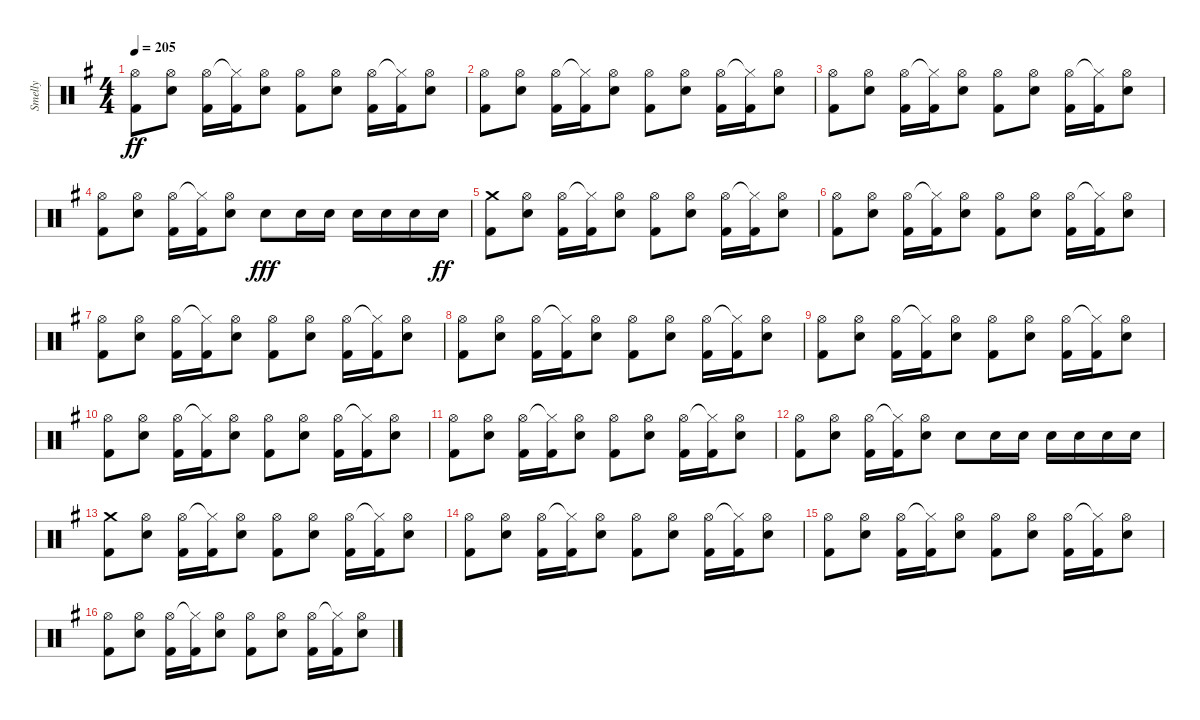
\track ("Smelly" "Smelly") {instrument percussion}
\staff {score}
\articulation defaults
\ts (4 4)
\tempo 205
\clef neutral
\ks eminor
("Hi-Hat (open)" "Kick (hit) 2").8{dy ff} ("Hi-Hat (open)" "Electric Snare (hit)").8 ("Hi-Hat (open)" "Kick (hit) 2").16 ("Hi-Hat (closed)"{t} "Kick (hit) 2").16 ("Hi-Hat (open)" "Electric Snare (hit)").8 ("Hi-Hat (open)" "Kick (hit) 2").8 ("Hi-Hat (open)" "Electric Snare (hit)").8 ("Hi-Hat (open)" "Kick (hit) 2").16 ("Hi-Hat (closed)"{t} "Kick (hit) 2").16 ("Hi-Hat (open)" "Electric Snare (hit)").8 |
("Hi-Hat (open)" "Kick (hit) 2").8 ("Hi-Hat (open)" "Electric Snare (hit)").8 ("Hi-Hat (open)" "Kick (hit) 2").16 ("Hi-Hat (closed)"{t} "Kick (hit) 2").16 ("Hi-Hat (open)" "Electric Snare (hit)").8 ("Hi-Hat (open)" "Kick (hit) 2").8 ("Hi-Hat (open)" "Electric Snare (hit)").8 ("Hi-Hat (open)" "Kick (hit) 2").16 ("Hi-Hat (closed)"{t} "Kick (hit) 2").16 ("Hi-Hat (open)" "Electric Snare (hit)").8 |
("Hi-Hat (open)" "Kick (hit) 2").8 ("Hi-Hat (open)" "Electric Snare (hit)").8 ("Hi-Hat (open)" "Kick (hit) 2").16 ("Hi-Hat (closed)"{t} "Kick (hit) 2").16 ("Hi-Hat (open)" "Electric Snare (hit)").8 ("Hi-Hat (open)" "Kick (hit) 2").8 ("Hi-Hat (open)" "Electric Snare (hit)").8 ("Hi-Hat (open)" "Kick (hit) 2").16 ("Hi-Hat (closed)"{t} "Kick (hit) 2").16 ("Hi-Hat (open)" "Electric Snare (hit)").8 |
("Hi-Hat (open)" "Kick (hit) 2").8 ("Hi-Hat (open)" "Electric Snare (hit)").8 ("Hi-Hat (open)" "Kick (hit) 2").16 ("Hi-Hat (closed)"{t} "Kick (hit) 2").16 ("Hi-Hat (open)" "Electric Snare (hit)").8 "Electric Snare (hit)".8{dy fff} "Electric Snare (hit)".16 "Electric Snare (hit)".16 "Electric Snare (hit)".16 "Electric Snare (hit)".16 "Electric Snare (hit)".16 "Electric Snare (hit)".16{dy ff} |
("Crash medium (hit)" "Kick (hit) 2").8 ("Hi-Hat (open)" "Electric Snare (hit)").8 ("Hi-Hat (open)" "Kick (hit) 2").16 ("Hi-Hat (closed)"{t} "Kick (hit) 2").16 ("Hi-Hat (open)" "Electric Snare (hit)").8 ("Hi-Hat (open)" "Kick (hit) 2").8 ("Hi-Hat (open)" "Electric Snare (hit)").8 ("Hi-Hat (open)" "Kick (hit) 2").16 ("Hi-Hat (closed)"{t} "Kick (hit) 2").16 ("Hi-Hat (open)" "Electric Snare (hit)").8 |
("Hi-Hat (open)" "Kick (hit) 2").8 ("Hi-Hat (open)" "Electric Snare (hit)").8 ("Hi-Hat (open)" "Kick (hit) 2").16 ("Hi-Hat (closed)"{t} "Kick (hit) 2").16 ("Hi-Hat (open)" "Electric Snare (hit)").8 ("Hi-Hat (open)" "Kick (hit) 2").8 ("Hi-Hat (open)" "Electric Snare (hit)").8 ("Hi-Hat (open)" "Kick (hit) 2").16 ("Hi-Hat (closed)"{t} "Kick (hit) 2").16 ("Hi-Hat (open)" "Electric Snare (hit)").8 |
("Hi-Hat (open)" "Kick (hit) 2").8 ("Hi-Hat (open)" "Electric Snare (hit)").8 ("Hi-Hat (open)" "Kick (hit) 2").16 ("Hi-Hat (closed)"{t} "Kick (hit) 2").16 ("Hi-Hat (open)" "Electric Snare (hit)").8 ("Hi-Hat (open)" "Kick (hit) 2").8 ("Hi-Hat (open)" "Electric Snare (hit)").8 ("Hi-Hat (open)" "Kick (hit) 2").16 ("Hi-Hat (closed)"{t} "Kick (hit) 2").16 ("Hi-Hat (open)" "Electric Snare (hit)").8 |
("Hi-Hat (open)" "Kick (hit) 2").8 ("Hi-Hat (open)" "Electric Snare (hit)").8 ("Hi-Hat (open)" "Kick (hit) 2").16 ("Hi-Hat (closed)"{t} "Kick (hit) 2").16 ("Hi-Hat (open)" "Electric Snare (hit)").8 ("Hi-Hat (open)" "Kick (hit) 2").8 ("Hi-Hat (open)" "Electric Snare (hit)").8 ("Hi-Hat (open)" "Kick (hit) 2").16 ("Hi-Hat (closed)"{t} "Kick (hit) 2").16 ("Hi-Hat (open)" "Electric Snare (hit)").8 |
("Hi-Hat (open)" "Kick (hit) 2").8 ("Hi-Hat (open)" "Electric Snare (hit)").8 ("Hi-Hat (open)" "Kick (hit) 2").16 ("Hi-Hat (closed)"{t} "Kick (hit) 2").16 ("Hi-Hat (open)" "Electric Snare (hit)").8 ("Hi-Hat (open)" "Kick (hit) 2").8 ("Hi-Hat (open)" "Electric Snare (hit)").8 ("Hi-Hat (open)" "Kick (hit) 2").16 ("Hi-Hat (closed)"{t} "Kick (hit) 2").16 ("Hi-Hat (open)" "Electric Snare (hit)").8 |
("Hi-Hat (open)" "Kick (hit) 2").8 ("Hi-Hat (open)" "Electric Snare (hit)").8 ("Hi-Hat (open)" "Kick (hit) 2").16 ("Hi-Hat (closed)"{t} "Kick (hit) 2").16 ("Hi-Hat (open)" "Electric Snare (hit)").8 ("Hi-Hat (open)" "Kick (hit) 2").8 ("Hi-Hat (open)" "Electric Snare (hit)").8 ("Hi-Hat (open)" "Kick (hit) 2").16 ("Hi-Hat (closed)"{t} "Kick (hit) 2").16 ("Hi-Hat (open)" "Electric Snare (hit)").8 |
("Hi-Hat (open)" "Kick (hit) 2").8 ("Hi-Hat (open)" "Electric Snare (hit)").8 ("Hi-Hat (open)" "Kick (hit) 2").16 ("Hi-Hat (closed)"{t} "Kick (hit) 2").16 ("Hi-Hat (open)" "Electric Snare (hit)").8 ("Hi-Hat (open)" "Kick (hit) 2").8 ("Hi-Hat (open)" "Electric Snare (hit)").8 ("Hi-Hat (open)" "Kick (hit) 2").16 ("Hi-Hat (closed)"{t} "Kick (hit) 2").16 ("Hi-Hat (open)" "Electric Snare (hit)").8 |
("Hi-Hat (open)" "Kick (hit) 2").8 ("Hi-Hat (open)" "Electric Snare (hit)").8 ("Hi-Hat (open)" "Kick (hit) 2").16 ("Hi-Hat (closed)"{t} "Kick (hit) 2").16 ("Hi-Hat (open)" "Electric Snare (hit)").8 "Electric Snare (hit)".8 "Electric Snare (hit)".16 "Electric Snare (hit)".16 "Electric Snare (hit)".16 "Electric Snare (hit)".16 "Electric Snare (hit)".16 "Electric Snare (hit)".16 |
("Crash medium (hit)" "Kick (hit) 2").8 ("Hi-Hat (open)" "Electric Snare (hit)").8 ("Hi-Hat (open)" "Kick (hit) 2").16 ("Hi-Hat (closed)"{t} "Kick (hit) 2").16 ("Hi-Hat (open)" "Electric Snare (hit)").8 ("Hi-Hat (open)" "Kick (hit) 2").8 ("Hi-Hat (open)" "Electric Snare (hit)").8 ("Hi-Hat (open)" "Kick (hit) 2").16 ("Hi-Hat (closed)"{t} "Kick (hit) 2").16 ("Hi-Hat (open)" "Electric Snare (hit)").8 |
("Hi-Hat (open)" "Kick (hit) 2").8 ("Hi-Hat (open)" "Electric Snare (hit)").8 ("Hi-Hat (open)" "Kick (hit) 2").16 ("Hi-Hat (closed)"{t} "Kick (hit) 2").16 ("Hi-Hat (open)" "Electric Snare (hit)").8 ("Hi-Hat (open)" "Kick (hit) 2").8 ("Hi-Hat (open)" "Electric Snare (hit)").8 ("Hi-Hat (open)" "Kick (hit) 2").16 ("Hi-Hat (closed)"{t} "Kick (hit) 2").16 ("Hi-Hat (open)" "Electric Snare (hit)").8 |
("Hi-Hat (open)" "Kick (hit) 2").8 ("Hi-Hat (open)" "Electric Snare (hit)").8 ("Hi-Hat (open)" "Kick (hit) 2").16 ("Hi-Hat (closed)"{t} "Kick (hit) 2").16 ("Hi-Hat (open)" "Electric Snare (hit)").8 ("Hi-Hat (open)" "Kick (hit) 2").8 ("Hi-Hat (open)" "Electric Snare (hit)").8 ("Hi-Hat (open)" "Kick (hit) 2").16 ("Hi-Hat (closed)"{t} "Kick (hit) 2").16 ("Hi-Hat (open)" "Electric Snare (hit)").8 |
("Hi-Hat (open)" "Kick (hit) 2").8 ("Hi-Hat (open)" "Electric Snare (hit)").8 ("Hi-Hat (open)" "Kick (hit) 2").16 ("Hi-Hat (closed)"{t} "Kick (hit) 2").16 ("Hi-Hat (open)" "Electric Snare (hit)").8 ("Hi-Hat (open)" "Kick (hit) 2").8 ("Hi-Hat (open)" "Electric Snare (hit)").8 ("Hi-Hat (open)" "Kick (hit) 2").16 ("Hi-Hat (closed)"{t} "Kick (hit) 2").16 ("Hi-Hat (open)" "Electric Snare (hit)").8
